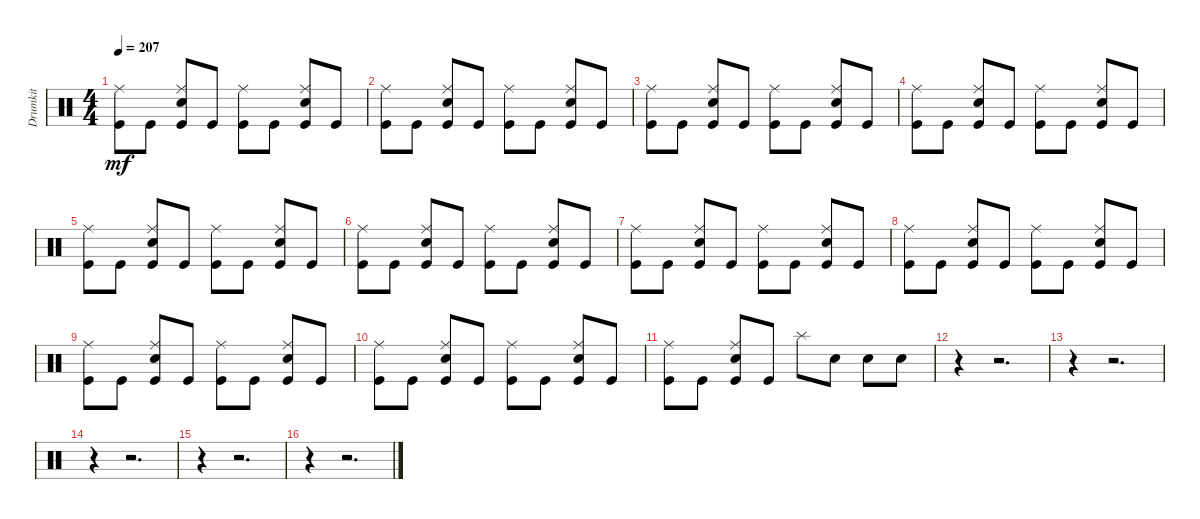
\track ("Drumkit" "Drumkit") {instrument percussion}
\staff {score}
\articulation defaults
\ts (4 4)
\tempo 207
\clef neutral
\ks c
("Kick (hit)" "Ride (middle)").8{dy mf} "Kick (hit)".8 ("Snare (hit) 2" "Ride (middle)" "Kick (hit)").8 "Kick (hit)".8 ("Kick (hit)" "Ride (middle)").8 "Kick (hit)".8 ("Snare (hit) 2" "Ride (middle)" "Kick (hit)").8 "Kick (hit)".8 |
("Kick (hit)" "Ride (middle)").8 "Kick (hit)".8 ("Snare (hit) 2" "Ride (middle)" "Kick (hit)").8 "Kick (hit)".8 ("Kick (hit)" "Ride (middle)").8 "Kick (hit)".8 ("Snare (hit) 2" "Ride (middle)" "Kick (hit)").8 "Kick (hit)".8 |
("Kick (hit)" "Ride (middle)").8 "Kick (hit)".8 ("Snare (hit) 2" "Ride (middle)" "Kick (hit)").8 "Kick (hit)".8 ("Kick (hit)" "Ride (middle)").8 "Kick (hit)".8 ("Snare (hit) 2" "Ride (middle)" "Kick (hit)").8 "Kick (hit)".8 |
("Kick (hit)" "Ride (middle)").8 "Kick (hit)".8 ("Snare (hit) 2" "Ride (middle)" "Kick (hit)").8 "Kick (hit)".8 ("Kick (hit)" "Ride (middle)").8 "Kick (hit)".8 ("Snare (hit) 2" "Ride (middle)" "Kick (hit)").8 "Kick (hit)".8 |
("Kick (hit)" "Ride (middle)").8 "Kick (hit)".8 ("Snare (hit) 2" "Ride (middle)" "Kick (hit)").8 "Kick (hit)".8 ("Kick (hit)" "Ride (middle)").8 "Kick (hit)".8 ("Snare (hit) 2" "Ride (middle)" "Kick (hit)").8 "Kick (hit)".8 |
("Kick (hit)" "Ride (middle)").8 "Kick (hit)".8 ("Snare (hit) 2" "Ride (middle)" "Kick (hit)").8 "Kick (hit)".8 ("Kick (hit)" "Ride (middle)").8 "Kick (hit)".8 ("Snare (hit) 2" "Ride (middle)" "Kick (hit)").8 "Kick (hit)".8 |
("Kick (hit)" "Ride (middle)").8 "Kick (hit)".8 ("Snare (hit) 2" "Ride (middle)" "Kick (hit)").8 "Kick (hit)".8 ("Kick (hit)" "Ride (middle)").8 "Kick (hit)".8 ("Snare (hit) 2" "Ride (middle)" "Kick (hit)").8 "Kick (hit)".8 |
("Kick (hit)" "Ride (middle)").8 "Kick (hit)".8 ("Snare (hit) 2" "Ride (middle)" "Kick (hit)").8 "Kick (hit)".8 ("Kick (hit)" "Ride (middle)").8 "Kick (hit)".8 ("Snare (hit) 2" "Ride (middle)" "Kick (hit)").8 "Kick (hit)".8 |
("Kick (hit)" "Ride (middle)").8 "Kick (hit)".8 ("Snare (hit) 2" "Ride (middle)" "Kick (hit)").8 "Kick (hit)".8 ("Kick (hit)" "Ride (middle)").8 "Kick (hit)".8 ("Snare (hit) 2" "Ride (middle)" "Kick (hit)").8 "Kick (hit)".8 |
("Kick (hit)" "Ride (middle)").8 "Kick (hit)".8 ("Snare (hit) 2" "Ride (middle)" "Kick (hit)").8 "Kick (hit)".8 ("Kick (hit)" "Ride (middle)").8 "Kick (hit)".8 ("Snare (hit) 2" "Ride (middle)" "Kick (hit)").8 "Kick (hit)".8 |
("Kick (hit)" "Ride (middle)").8 "Kick (hit)".8 ("Snare (hit) 2" "Ride (middle)" "Kick (hit)").8 "Kick (hit)".8 "Splash (hit)".8 "Snare (hit) 2".8 "Snare (hit) 2".8 "Snare (hit) 2".8 |
r.4 r.2{d} |
r.4 r.2{d} |
r.4 r.2{d} |
r.4 r.2{d} |
r.4 r.2{d}
